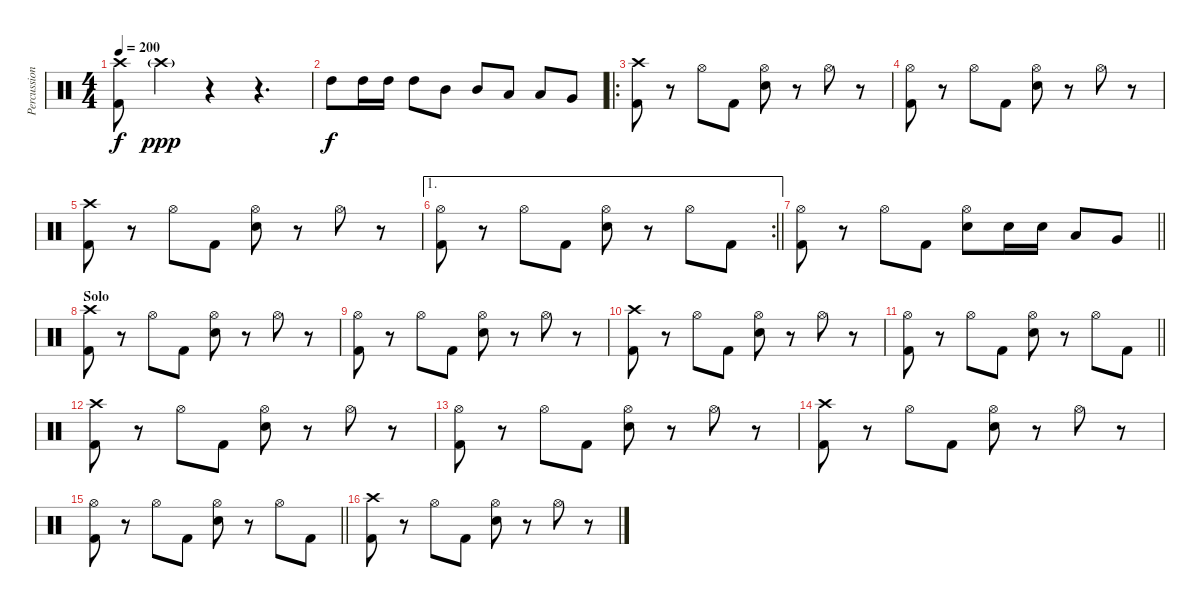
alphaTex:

\track ("Percussion" "Percussion") {instrument percussion}
\staff {score}
\articulation defaults
\ts (4 4)
\tempo 200
\clef neutral
\ks c
("Crash high (hit)" "Kick (hit) 2").8{dy f} "Crash high (hit)"{g}.4{dy ppp} r.4 r.4{d} |
"High Tom (hit)".8{dy f} "High Tom (hit)".16 "High Tom (hit)".16 "High Tom (hit)".8 "Mid Tom (hit)".8 "Mid Tom (hit)".8 "Low Tom (hit)".8 "Low Tom (hit)".8 "Very Low Tom (hit)".8 |
\ro
("Crash high (hit)" "Kick (hit) 2").8 r.8 "Hi-Hat (open)".8 "Kick (hit) 2".8 ("Hi-Hat (open)" "Snare (hit) 2").8 r.8 "Hi-Hat (open)".8 r.8 |
("Hi-Hat (open)" "Kick (hit) 2").8 r.8 "Hi-Hat (open)".8 "Kick (hit) 2".8 ("Hi-Hat (open)" "Snare (hit) 2").8 r.8 "Hi-Hat (open)".8 r.8 |
("Crash high (hit)" "Kick (hit) 2").8 r.8 "Hi-Hat (open)".8 "Kick (hit) 2".8 ("Hi-Hat (open)" "Snare (hit) 2").8 r.8 "Hi-Hat (open)".8 r.8 |
\ae 1
\rc 2
\barLineRight lightlight
("Hi-Hat (open)" "Kick (hit) 2").8 r.8 "Hi-Hat (open)".8 "Kick (hit) 2".8 ("Hi-Hat (open)" "Snare (hit) 2").8 r.8 "Hi-Hat (open)".8 "Kick (hit) 2".8 |
\barLineRight lightlight
("Hi-Hat (open)" "Kick (hit) 2").8 r.8 "Hi-Hat (open)".8 "Kick (hit) 2".8 ("Hi-Hat (open)" "Snare (hit) 2").8 "Snare (hit) 2".16 "Snare (hit) 2".16 "Low Tom (hit)".8 "Very Low Tom (hit)".8 |
\section ("" "Solo")
("Crash high (hit)" "Kick (hit) 2").8 r.8 "Hi-Hat (open)".8 "Kick (hit) 2".8 ("Hi-Hat (open)" "Snare (hit) 2").8 r.8 "Hi-Hat (open)".8 r.8 |
("Hi-Hat (open)" "Kick (hit) 2").8 r.8 "Hi-Hat (open)".8 "Kick (hit) 2".8 ("Hi-Hat (open)" "Snare (hit) 2").8 r.8 "Hi-Hat (open)".8 r.8 |
("Crash high (hit)" "Kick (hit) 2").8 r.8 "Hi-Hat (open)".8 "Kick (hit) 2".8 ("Hi-Hat (open)" "Snare (hit) 2").8 r.8 "Hi-Hat (open)".8 r.8 |
\barLineRight lightlight
("Hi-Hat (open)" "Kick (hit) 2").8 r.8 "Hi-Hat (open)".8 "Kick (hit) 2".8 ("Hi-Hat (open)" "Snare (hit) 2").8 r.8 "Hi-Hat (open)".8 "Kick (hit) 2".8 |
("Crash high (hit)" "Kick (hit) 2").8 r.8 "Hi-Hat (open)".8 "Kick (hit) 2".8 ("Hi-Hat (open)" "Snare (hit) 2").8 r.8 "Hi-Hat (open)".8 r.8 |
("Hi-Hat (open)" "Kick (hit) 2").8 r.8 "Hi-Hat (open)".8 "Kick (hit) 2".8 ("Hi-Hat (open)" "Snare (hit) 2").8 r.8 "Hi-Hat (open)".8 r.8 |
("Crash high (hit)" "Kick (hit) 2").8 r.8 "Hi-Hat (open)".8 "Kick (hit) 2".8 ("Hi-Hat (open)" "Snare (hit) 2").8 r.8 "Hi-Hat (open)".8 r.8 |
\barLineRight lightlight
("Hi-Hat (open)" "Kick (hit) 2").8 r.8 "Hi-Hat (open)".8 "Kick (hit) 2".8 ("Hi-Hat (open)" "Snare (hit) 2").8 r.8 "Hi-Hat (open)".8 "Kick (hit) 2".8 |
("Crash high (hit)" "Kick (hit) 2").8 r.8 "Hi-Hat (open)".8 "Kick (hit) 2".8 ("Hi-Hat (open)" "Snare (hit) 2").8 r.8 "Hi-Hat (open)".8 r.8
